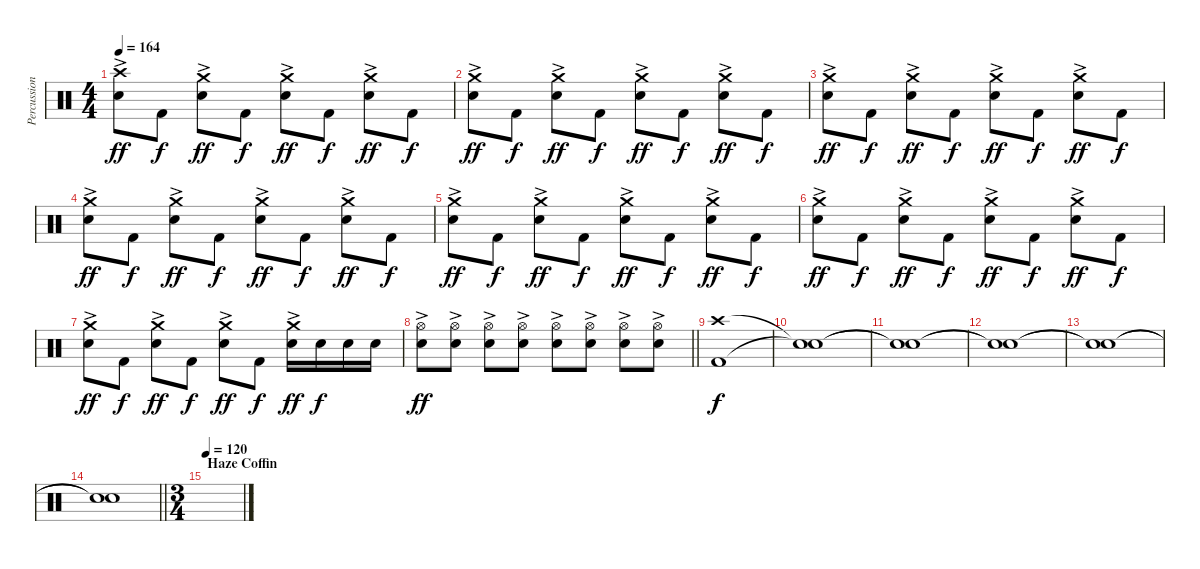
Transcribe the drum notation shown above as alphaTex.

\track ("Percussion" "Percussion") {instrument percussion}
\staff {score}
\articulation defaults
\ts (4 4)
\tempo 164
\clef neutral
\ks c
("Crash high (hit)" "Electric Snare (hit)"{ac}).8{dy ff} "Kick (hit) 2".8{dy f} ("Crash medium (hit)" "Electric Snare (hit)"{ac}).8{dy ff} "Kick (hit) 2".8{dy f} ("Crash medium (hit)" "Electric Snare (hit)"{ac}).8{dy ff} "Kick (hit) 2".8{dy f} ("Crash medium (hit)" "Electric Snare (hit)"{ac}).8{dy ff} "Kick (hit) 2".8{dy f} |
("Crash medium (hit)" "Electric Snare (hit)"{ac}).8{dy ff} "Kick (hit) 2".8{dy f} ("Crash medium (hit)" "Electric Snare (hit)"{ac}).8{dy ff} "Kick (hit) 2".8{dy f} ("Crash medium (hit)" "Electric Snare (hit)"{ac}).8{dy ff} "Kick (hit) 2".8{dy f} ("Crash medium (hit)" "Electric Snare (hit)"{ac}).8{dy ff} "Kick (hit) 2".8{dy f} |
("Crash medium (hit)" "Electric Snare (hit)"{ac}).8{dy ff} "Kick (hit) 2".8{dy f} ("Crash medium (hit)" "Electric Snare (hit)"{ac}).8{dy ff} "Kick (hit) 2".8{dy f} ("Crash medium (hit)" "Electric Snare (hit)"{ac}).8{dy ff} "Kick (hit) 2".8{dy f} ("Crash medium (hit)" "Electric Snare (hit)"{ac}).8{dy ff} "Kick (hit) 2".8{dy f} |
("Crash medium (hit)" "Electric Snare (hit)"{ac}).8{dy ff} "Kick (hit) 2".8{dy f} ("Crash medium (hit)" "Electric Snare (hit)"{ac}).8{dy ff} "Kick (hit) 2".8{dy f} ("Crash medium (hit)" "Electric Snare (hit)"{ac}).8{dy ff} "Kick (hit) 2".8{dy f} ("Crash medium (hit)" "Electric Snare (hit)"{ac}).8{dy ff} "Kick (hit) 2".8{dy f} |
("Crash medium (hit)" "Electric Snare (hit)"{ac}).8{dy ff} "Kick (hit) 2".8{dy f} ("Crash medium (hit)" "Electric Snare (hit)"{ac}).8{dy ff} "Kick (hit) 2".8{dy f} ("Crash medium (hit)" "Electric Snare (hit)"{ac}).8{dy ff} "Kick (hit) 2".8{dy f} ("Crash medium (hit)" "Electric Snare (hit)"{ac}).8{dy ff} "Kick (hit) 2".8{dy f} |
("Crash medium (hit)" "Electric Snare (hit)"{ac}).8{dy ff} "Kick (hit) 2".8{dy f} ("Crash medium (hit)" "Electric Snare (hit)"{ac}).8{dy ff} "Kick (hit) 2".8{dy f} ("Crash medium (hit)" "Electric Snare (hit)"{ac}).8{dy ff} "Kick (hit) 2".8{dy f} ("Crash medium (hit)" "Electric Snare (hit)"{ac}).8{dy ff} "Kick (hit) 2".8{dy f} |
("Crash medium (hit)" "Electric Snare (hit)"{ac}).8{dy ff} "Kick (hit) 2".8{dy f} ("Crash medium (hit)" "Electric Snare (hit)"{ac}).8{dy ff} "Kick (hit) 2".8{dy f} ("Crash medium (hit)" "Electric Snare (hit)"{ac}).8{dy ff} "Kick (hit) 2".8{dy f} ("Crash medium (hit)" "Electric Snare (hit)"{ac}).16{dy ff} "Electric Snare (hit)".16{dy f} "Electric Snare (hit)".16 "Electric Snare (hit)".16 |
\barLineRight lightlight
("Hi-Hat (open)" "Electric Snare (hit)"{ac}).8{dy ff} ("Hi-Hat (open)" "Electric Snare (hit)"{ac}).8 ("Hi-Hat (open)" "Electric Snare (hit)"{ac}).8 ("Hi-Hat (open)" "Electric Snare (hit)"{ac}).8 ("Hi-Hat (open)" "Electric Snare (hit)"{ac}).8 ("Hi-Hat (open)" "Electric Snare (hit)"{ac}).8 ("Hi-Hat (open)" "Electric Snare (hit)"{ac}).8 ("Hi-Hat (open)" "Electric Snare (hit)"{ac}).8 |
("Crash high (hit)" "Kick (hit) 2").1{dy f} |
("Snare (hit)"{t} "Snare (hit)"{t}).1 |
("Snare (hit)"{t} "Snare (hit)"{t}).1 |
("Snare (hit)"{t} "Snare (hit)"{t}).1 |
("Snare (hit)"{t} "Snare (hit)"{t}).1 |
\barLineRight lightlight
("Snare (hit)"{t} "Snare (hit)"{t}).1 |
\ts (3 4)
\section ("" "Haze Coffin")
\tempo 120
